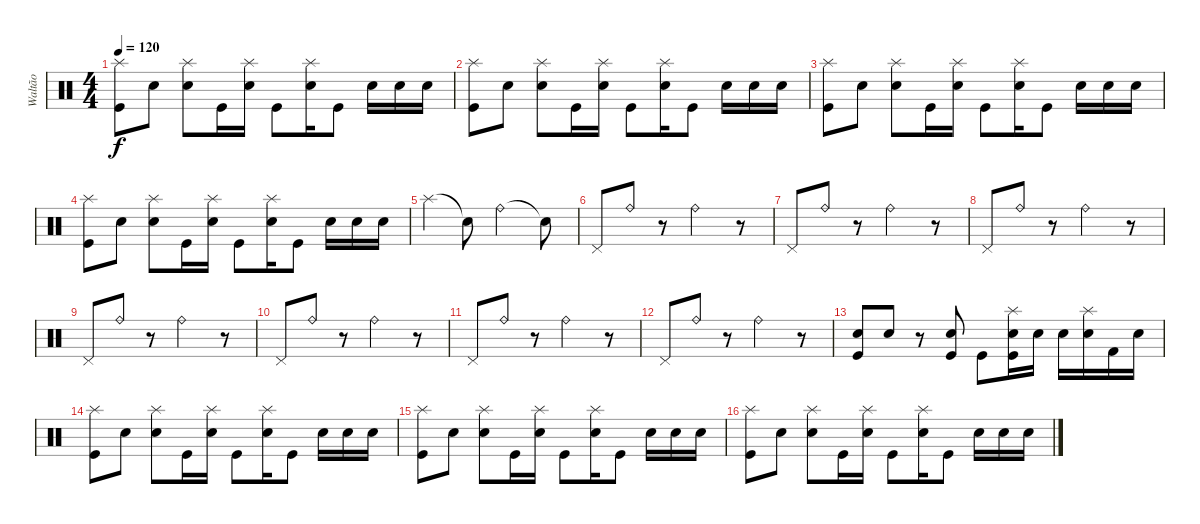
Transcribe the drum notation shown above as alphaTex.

\track ("Waltão" "Waltão") {instrument percussion}
\staff {score}
\articulation defaults
\ts (4 4)
\tempo 120
\clef neutral
\ks c
("Splash (hit)" "Kick (hit)").8{dy f} "Electric Snare (hit)".8 ("Splash (hit)" "Electric Snare (hit)").8 "Kick (hit)".16 ("Splash (hit)" "Electric Snare (hit)").16 "Kick (hit)".8 ("Splash (hit)" "Electric Snare (hit)").16 "Kick (hit)".8 "Electric Snare (hit)".16 "Electric Snare (hit)".16 "Electric Snare (hit)".16 |
("Splash (hit)" "Kick (hit)").8 "Electric Snare (hit)".8 ("Splash (hit)" "Electric Snare (hit)").8 "Kick (hit)".16 ("Splash (hit)" "Electric Snare (hit)").16 "Kick (hit)".8 ("Splash (hit)" "Electric Snare (hit)").16 "Kick (hit)".8 "Electric Snare (hit)".16 "Electric Snare (hit)".16 "Electric Snare (hit)".16 |
("Splash (hit)" "Kick (hit)").8 "Electric Snare (hit)".8 ("Splash (hit)" "Electric Snare (hit)").8 "Kick (hit)".16 ("Splash (hit)" "Electric Snare (hit)").16 "Kick (hit)".8 ("Splash (hit)" "Electric Snare (hit)").16 "Kick (hit)".8 "Electric Snare (hit)".16 "Electric Snare (hit)".16 "Electric Snare (hit)".16 |
("Splash (hit)" "Kick (hit)").8 "Electric Snare (hit)".8 ("Splash (hit)" "Electric Snare (hit)").8 "Kick (hit)".16 ("Splash (hit)" "Electric Snare (hit)").16 "Kick (hit)".8 ("Splash (hit)" "Electric Snare (hit)").16 "Kick (hit)".8 "Electric Snare (hit)".16 "Electric Snare (hit)".16 "Electric Snare (hit)".16 |
"Splash (hit)".4 "Snare (hit)"{t}.8 "Ride (bell)".2 "Snare (hit)"{t}.8 |
"Pedal Hi-Hat (hit)".8 "Ride (bell)".8 r.8 "Ride (bell)".2 r.8 |
"Pedal Hi-Hat (hit)".8 "Ride (bell)".8 r.8 "Ride (bell)".2 r.8 |
"Pedal Hi-Hat (hit)".8 "Ride (bell)".8 r.8 "Ride (bell)".2 r.8 |
"Pedal Hi-Hat (hit)".8 "Ride (bell)".8 r.8 "Ride (bell)".2 r.8 |
"Pedal Hi-Hat (hit)".8 "Ride (bell)".8 r.8 "Ride (bell)".2 r.8 |
"Pedal Hi-Hat (hit)".8 "Ride (bell)".8 r.8 "Ride (bell)".2 r.8 |
"Pedal Hi-Hat (hit)".8 "Ride (bell)".8 r.8 "Ride (bell)".2 r.8 |
("Electric Snare (hit)" "Kick (hit)").8 "Electric Snare (hit)".8 r.8 ("Electric Snare (hit)" "Kick (hit)").8 "Kick (hit)".8 ("Splash (hit)" "Electric Snare (hit)" "Kick (hit)").16 "Snare (hit) 2".16 "Electric Snare (hit)".16 ("Splash (hit)" "Snare (hit) 2").16 "Kick (hit) 2".16 "Snare (hit) 2".16 |
("Splash (hit)" "Kick (hit)").8 "Electric Snare (hit)".8 ("Splash (hit)" "Electric Snare (hit)").8 "Kick (hit)".16 ("Splash (hit)" "Electric Snare (hit)").16 "Kick (hit)".8 ("Splash (hit)" "Electric Snare (hit)").16 "Kick (hit)".8 "Electric Snare (hit)".16 "Electric Snare (hit)".16 "Electric Snare (hit)".16 |
("Splash (hit)" "Kick (hit)").8 "Electric Snare (hit)".8 ("Splash (hit)" "Electric Snare (hit)").8 "Kick (hit)".16 ("Splash (hit)" "Electric Snare (hit)").16 "Kick (hit)".8 ("Splash (hit)" "Electric Snare (hit)").16 "Kick (hit)".8 "Electric Snare (hit)".16 "Electric Snare (hit)".16 "Electric Snare (hit)".16 |
("Splash (hit)" "Kick (hit)").8 "Electric Snare (hit)".8 ("Splash (hit)" "Electric Snare (hit)").8 "Kick (hit)".16 ("Splash (hit)" "Electric Snare (hit)").16 "Kick (hit)".8 ("Splash (hit)" "Electric Snare (hit)").16 "Kick (hit)".8 "Electric Snare (hit)".16 "Electric Snare (hit)".16 "Electric Snare (hit)".16
